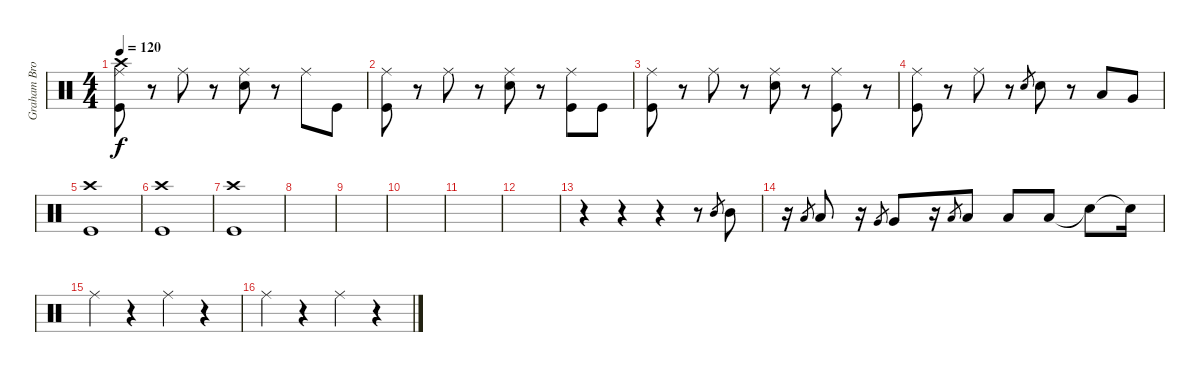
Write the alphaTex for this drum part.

\track ("Graham Broad (Drums)" "Graham Bro") {instrument percussion}
\staff {score}
\articulation defaults
\ts (4 4)
\tempo 120
\clef neutral
\ks c
("Crash high (hit)" "Ride (middle)" "Kick (hit)").8{dy f} r.8 "Ride (middle)".8 r.8 ("Ride (middle)" "Snare (hit) 2").8 r.8 "Ride (middle)".8 "Kick (hit)".8 |
("Ride (middle)" "Kick (hit)").8 r.8 "Ride (middle)".8 r.8 ("Ride (middle)" "Snare (hit) 2").8 r.8 ("Ride (middle)" "Kick (hit)").8 "Kick (hit)".8 |
("Ride (middle)" "Kick (hit)").8 r.8 "Ride (middle)".8 r.8 ("Ride (middle)" "Snare (hit) 2").8 r.8 ("Ride (middle)" "Kick (hit)").8 r.8 |
("Ride (middle)" "Kick (hit)").8 r.8 "Ride (middle)".8 r.8 "Snare (hit) 2".8{gr} "Snare (hit) 2".8 r.8 "Low Tom (hit)".8 "Very Low Tom (hit)".8 |
("Crash high (hit)" "Kick (hit)").1 |
("Crash high (hit)" "Kick (hit)").1 |
("Crash high (hit)" "Kick (hit)").1 |
|
|
|
|
|
r.4 r.4 r.4 r.8 "Mid Tom (hit)".8{gr} "Mid Tom (hit)".8 |
r.16 "Low Tom (hit)".8{gr} "Low Tom (hit)".8 r.16 "Very Low Tom (hit)".8{gr} "Very Low Tom (hit)".8 r.16 "Low Floor Tom (hit)".8{gr} "Low Floor Tom (hit)".8 "Low Floor Tom (hit)".8 "Low Floor Tom (hit)".8 "Snare (hit)"{t}.8 "Snare (hit)"{t}.16 |
"Ride (middle)".4 r.4 "Ride (middle)".4 r.4 |
"Ride (middle)".4 r.4 "Ride (middle)".4 r.4
